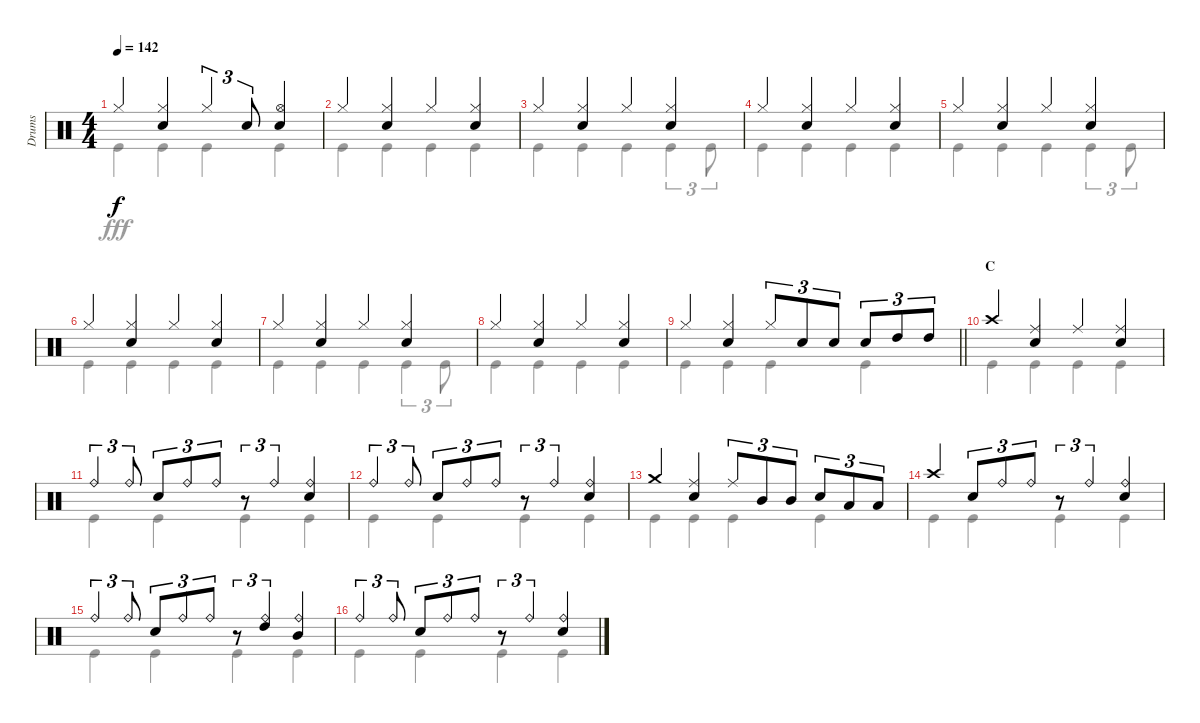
\track ("Drums" "Drums") {instrument percussion}
\staff {score}
\articulation defaults
\voice
\ts (4 4)
\tempo 142
\clef neutral
\ks c "Hi-Hat (closed)".4{dy f}
("Hi-Hat (closed)" "Snare (hit) 2").4 "Hi-Hat (closed)".4{tu (3 2)} "Snare (hit) 2".8{tu (3 2)} ("Hi-Hat (open)" "Snare (hit) 2").4 |
"Hi-Hat (closed)".4 ("Hi-Hat (closed)" "Snare (hit) 2").4 "Hi-Hat (closed)".4 ("Hi-Hat (closed)" "Snare (hit) 2").4 |
"Hi-Hat (closed)".4 ("Hi-Hat (closed)" "Snare (hit) 2").4 "Hi-Hat (closed)".4 ("Hi-Hat (closed)" "Snare (hit) 2").4 |
"Hi-Hat (closed)".4 ("Hi-Hat (closed)" "Snare (hit) 2").4 "Hi-Hat (closed)".4 ("Hi-Hat (closed)" "Snare (hit) 2").4 |
"Hi-Hat (closed)".4 ("Hi-Hat (closed)" "Snare (hit) 2").4 "Hi-Hat (closed)".4 ("Hi-Hat (closed)" "Snare (hit) 2").4 |
"Hi-Hat (closed)".4 ("Hi-Hat (closed)" "Snare (hit) 2").4 "Hi-Hat (closed)".4 ("Hi-Hat (closed)" "Snare (hit) 2").4 |
"Hi-Hat (closed)".4 ("Hi-Hat (closed)" "Snare (hit) 2").4 "Hi-Hat (closed)".4 ("Hi-Hat (closed)" "Snare (hit) 2").4 |
"Hi-Hat (closed)".4 ("Hi-Hat (closed)" "Snare (hit) 2").4 "Hi-Hat (closed)".4 ("Hi-Hat (closed)" "Snare (hit) 2").4 |
\barLineRight lightlight "Hi-Hat (closed)".4
("Hi-Hat (closed)" "Snare (hit) 2").4 "Hi-Hat (closed)".8{tu (3 2)} "Snare (hit) 2".8{tu (3 2)} "Snare (hit) 2".8{tu (3 2)} "Snare (hit) 2".8{tu (3 2)} "High Tom (hit)".8{tu (3 2)} "High Tom (hit)".8{tu (3 2)} |
\section ("" "C")
"Crash high (hit)".4 ("Ride (middle)" "Snare (hit) 2").4 "Ride (middle)".4 ("Ride (middle)" "Snare (hit) 2").4 |
"Ride (bell)".4{tu (3 2)} "Ride (bell)".8{tu (3 2)} "Snare (hit) 2".8{tu (3 2)} "Ride (bell)".8{tu (3 2)} "Ride (bell)".8{tu (3 2)} r.8{tu (3 2)} "Ride (bell)".4{tu (3 2)} ("Ride (bell)" "Snare (hit) 2").4 |
"Ride (bell)".4{tu (3 2)} "Ride (bell)".8{tu (3 2)} "Snare (hit) 2".8{tu (3 2)} "Ride (bell)".8{tu (3 2)} "Ride (bell)".8{tu (3 2)} r.8{tu (3 2)} "Ride (bell)".4{tu (3 2)} ("Ride (bell)" "Snare (hit) 2").4 |
"Crash medium (hit)".4 ("Ride (middle)" "Snare (hit) 2").4 "Ride (middle)".8{tu (3 2)} "Mid Tom (hit)".8{tu (3 2)} "Mid Tom (hit)".8{tu (3 2)} "Snare (hit) 2".8{tu (3 2)} "Low Tom (hit)".8{tu (3 2)} "Low Tom (hit)".8{tu (3 2)} |
"Crash high (hit)".4 "Snare (hit) 2".8{tu (3 2)} "Ride (bell)".8{tu (3 2)} "Ride (bell)".8{tu (3 2)} r.8{tu (3 2)} "Ride (bell)".4{tu (3 2)} ("Ride (bell)" "Snare (hit) 2").4 |
"Ride (bell)".4{tu (3 2)} "Ride (bell)".8{tu (3 2)} "Snare (hit) 2".8{tu (3 2)} "Ride (bell)".8{tu (3 2)} "Ride (bell)".8{tu (3 2)} r.8{tu (3 2)} ("Ride (bell)" "High Tom (hit)").4{tu (3 2)} ("Ride (bell)" "Mid Tom (hit)").4 |
"Ride (bell)".4{tu (3 2)} "Ride (bell)".8{tu (3 2)} "Snare (hit) 2".8{tu (3 2)} "Ride (bell)".8{tu (3 2)} "Ride (bell)".8{tu (3 2)} r.8{tu (3 2)} "Ride (bell)".4{tu (3 2)} ("Ride (bell)" "Snare (hit) 2").4
\voice
\clef neutral
\ottava regular
\simile none
\ks c "Kick (hit)".4{dy fff} "Kick (hit)".4 "Kick (hit)".4 "Kick (hit)".4
|
"Kick (hit)".4 "Kick (hit)".4 "Kick (hit)".4 "Kick (hit)".4 |
"Kick (hit)".4 "Kick (hit)".4 "Kick (hit)".4 "Kick (hit)".4{tu (3 2)} "Kick (hit)".8{tu (3 2)} |
"Kick (hit)".4 "Kick (hit)".4 "Kick (hit)".4 "Kick (hit)".4 |
"Kick (hit)".4 "Kick (hit)".4 "Kick (hit)".4 "Kick (hit)".4{tu (3 2)} "Kick (hit)".8{tu (3 2)} |
"Kick (hit)".4 "Kick (hit)".4 "Kick (hit)".4 "Kick (hit)".4 |
"Kick (hit)".4 "Kick (hit)".4 "Kick (hit)".4 "Kick (hit)".4{tu (3 2)} "Kick (hit)".8{tu (3 2)} |
"Kick (hit)".4 "Kick (hit)".4 "Kick (hit)".4 "Kick (hit)".4 |
\barLineRight lightlight "Kick (hit)".4 "Kick (hit)".4 "Kick (hit)".4 "Kick (hit)".4
|
"Kick (hit)".4 "Kick (hit)".4 "Kick (hit)".4 "Kick (hit)".4 |
"Kick (hit)".4 "Kick (hit)".4 "Kick (hit)".4 "Kick (hit)".4 |
"Kick (hit)".4 "Kick (hit)".4 "Kick (hit)".4 "Kick (hit)".4 |
"Kick (hit)".4 "Kick (hit)".4 "Kick (hit)".4 "Kick (hit)".4 |
"Kick (hit)".4 "Kick (hit)".4 "Kick (hit)".4 "Kick (hit)".4 |
"Kick (hit)".4 "Kick (hit)".4 "Kick (hit)".4 "Kick (hit)".4 |
"Kick (hit)".4 "Kick (hit)".4 "Kick (hit)".4 "Kick (hit)".4
